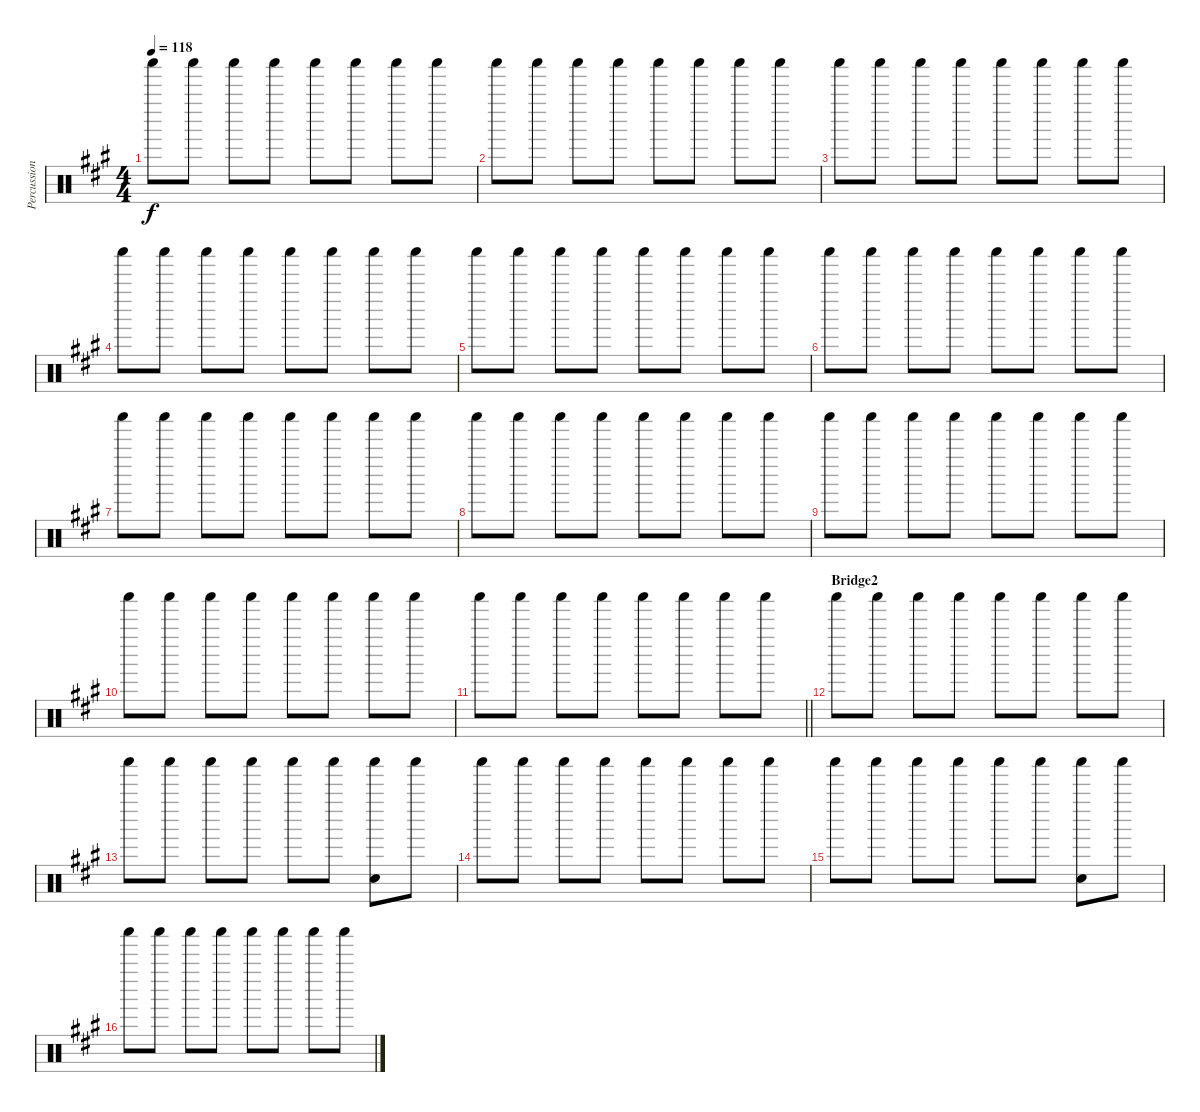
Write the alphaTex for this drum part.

\track ("Percussions" "Percussion") {instrument percussion}
\staff {score}
\articulation defaults
\ts (4 4)
\tempo 118
\clef neutral
\ks f#minor "Shaker (hit)".8{dy f} "Shaker (hit)".8 "Shaker (hit)".8 "Shaker (hit)".8 "Shaker (hit)".8 "Shaker (hit)".8 "Shaker (hit)".8 "Shaker (hit)".8
|
"Shaker (hit)".8 "Shaker (hit)".8 "Shaker (hit)".8 "Shaker (hit)".8 "Shaker (hit)".8 "Shaker (hit)".8 "Shaker (hit)".8 "Shaker (hit)".8 |
"Shaker (hit)".8 "Shaker (hit)".8 "Shaker (hit)".8 "Shaker (hit)".8 "Shaker (hit)".8 "Shaker (hit)".8 "Shaker (hit)".8 "Shaker (hit)".8 |
"Shaker (hit)".8 "Shaker (hit)".8 "Shaker (hit)".8 "Shaker (hit)".8 "Shaker (hit)".8 "Shaker (hit)".8 "Shaker (hit)".8 "Shaker (hit)".8 |
"Shaker (hit)".8 "Shaker (hit)".8 "Shaker (hit)".8 "Shaker (hit)".8 "Shaker (hit)".8 "Shaker (hit)".8 "Shaker (hit)".8 "Shaker (hit)".8 |
"Shaker (hit)".8 "Shaker (hit)".8 "Shaker (hit)".8 "Shaker (hit)".8 "Shaker (hit)".8 "Shaker (hit)".8 "Shaker (hit)".8 "Shaker (hit)".8 |
"Shaker (hit)".8 "Shaker (hit)".8 "Shaker (hit)".8 "Shaker (hit)".8 "Shaker (hit)".8 "Shaker (hit)".8 "Shaker (hit)".8 "Shaker (hit)".8 |
"Shaker (hit)".8 "Shaker (hit)".8 "Shaker (hit)".8 "Shaker (hit)".8 "Shaker (hit)".8 "Shaker (hit)".8 "Shaker (hit)".8 "Shaker (hit)".8 |
"Shaker (hit)".8 "Shaker (hit)".8 "Shaker (hit)".8 "Shaker (hit)".8 "Shaker (hit)".8 "Shaker (hit)".8 "Shaker (hit)".8 "Shaker (hit)".8 |
"Shaker (hit)".8 "Shaker (hit)".8 "Shaker (hit)".8 "Shaker (hit)".8 "Shaker (hit)".8 "Shaker (hit)".8 "Shaker (hit)".8 "Shaker (hit)".8 |
\barLineRight lightlight "Shaker (hit)".8 "Shaker (hit)".8 "Shaker (hit)".8 "Shaker (hit)".8 "Shaker (hit)".8 "Shaker (hit)".8 "Shaker (hit)".8 "Shaker (hit)".8
|
\section ("" "Bridge2")
"Shaker (hit)".8 "Shaker (hit)".8 "Shaker (hit)".8 "Shaker (hit)".8 "Shaker (hit)".8 "Shaker (hit)".8 "Shaker (hit)".8 "Shaker (hit)".8 |
"Shaker (hit)".8 "Shaker (hit)".8 "Shaker (hit)".8 "Shaker (hit)".8 "Shaker (hit)".8 "Shaker (hit)".8 ("Shaker (hit)" "Hand Clap (hit)").8 "Shaker (hit)".8 |
"Shaker (hit)".8 "Shaker (hit)".8 "Shaker (hit)".8 "Shaker (hit)".8 "Shaker (hit)".8 "Shaker (hit)".8 "Shaker (hit)".8 "Shaker (hit)".8 |
"Shaker (hit)".8 "Shaker (hit)".8 "Shaker (hit)".8 "Shaker (hit)".8 "Shaker (hit)".8 "Shaker (hit)".8 ("Shaker (hit)" "Hand Clap (hit)").8 "Shaker (hit)".8 |
"Shaker (hit)".8 "Shaker (hit)".8 "Shaker (hit)".8 "Shaker (hit)".8 "Shaker (hit)".8 "Shaker (hit)".8 "Shaker (hit)".8 "Shaker (hit)".8
